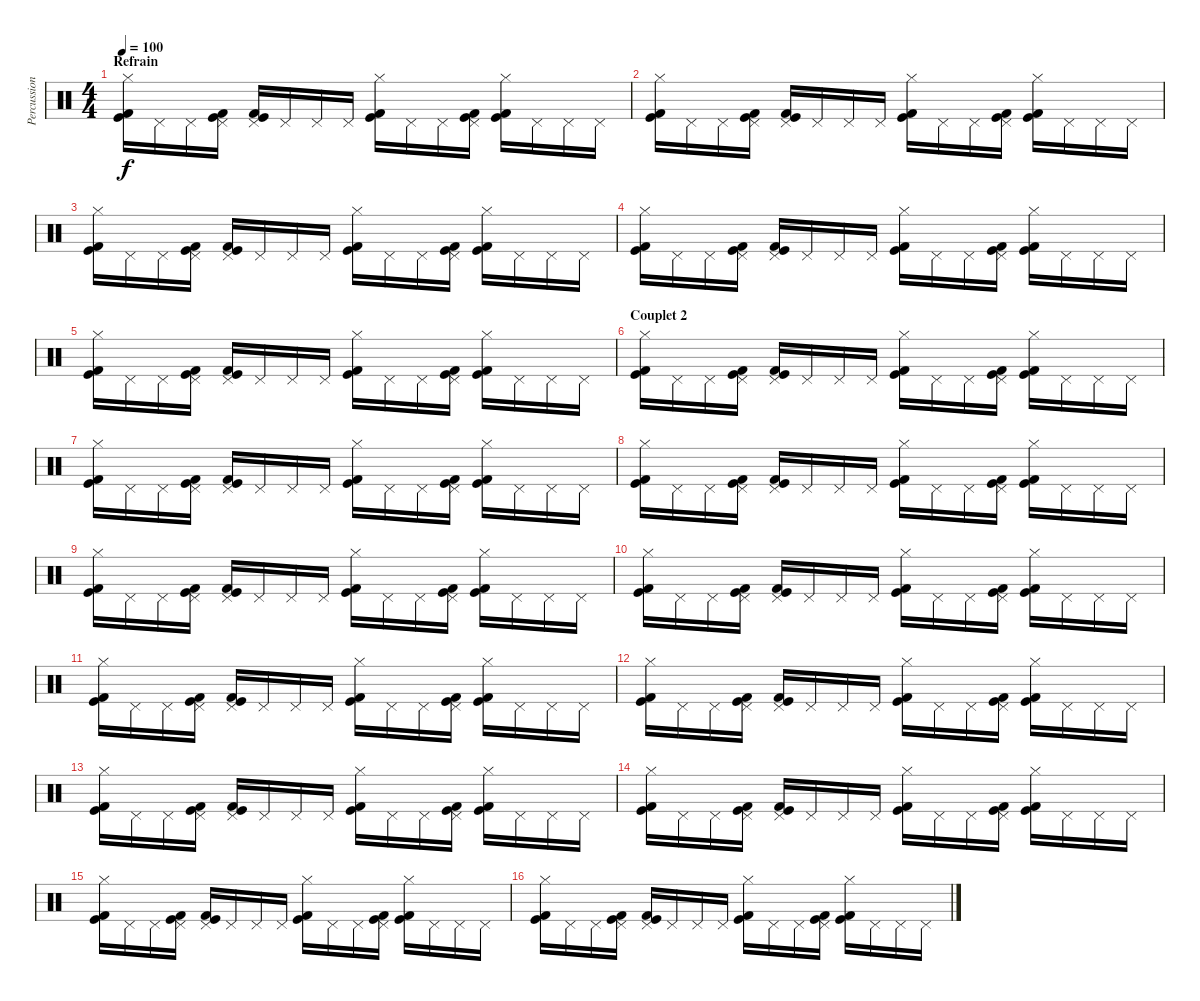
\track ("Percussions" "Percussion") {instrument percussion}
\staff {score}
\articulation defaults
\ts (4 4)
\section ("" "Refrain")
\tempo 100
\clef neutral
\ks c
("Kick (hit)" "Kick (hit) 2" "Hi-Hat (closed)").16{dy f} "Pedal Hi-Hat (hit)".16 "Pedal Hi-Hat (hit)".16 ("Kick (hit)" "Kick (hit) 2" "Pedal Hi-Hat (hit)").16 ("Kick (hit)" "Kick (hit) 2" "Pedal Hi-Hat (hit)").16 "Pedal Hi-Hat (hit)".16 "Pedal Hi-Hat (hit)".16 "Pedal Hi-Hat (hit)".16 ("Kick (hit)" "Kick (hit) 2" "Hi-Hat (closed)").16 "Pedal Hi-Hat (hit)".16 "Pedal Hi-Hat (hit)".16 ("Kick (hit)" "Kick (hit) 2" "Pedal Hi-Hat (hit)").16 ("Kick (hit)" "Kick (hit) 2" "Hi-Hat (closed)").16 "Pedal Hi-Hat (hit)".16 "Pedal Hi-Hat (hit)".16 "Pedal Hi-Hat (hit)".16 |
("Kick (hit)" "Kick (hit) 2" "Hi-Hat (closed)").16 "Pedal Hi-Hat (hit)".16 "Pedal Hi-Hat (hit)".16 ("Kick (hit)" "Kick (hit) 2" "Pedal Hi-Hat (hit)").16 ("Kick (hit)" "Kick (hit) 2" "Pedal Hi-Hat (hit)").16 "Pedal Hi-Hat (hit)".16 "Pedal Hi-Hat (hit)".16 "Pedal Hi-Hat (hit)".16 ("Kick (hit)" "Kick (hit) 2" "Hi-Hat (closed)").16 "Pedal Hi-Hat (hit)".16 "Pedal Hi-Hat (hit)".16 ("Kick (hit)" "Kick (hit) 2" "Pedal Hi-Hat (hit)").16 ("Kick (hit)" "Kick (hit) 2" "Hi-Hat (closed)").16 "Pedal Hi-Hat (hit)".16 "Pedal Hi-Hat (hit)".16 "Pedal Hi-Hat (hit)".16 |
("Kick (hit)" "Kick (hit) 2" "Hi-Hat (closed)").16 "Pedal Hi-Hat (hit)".16 "Pedal Hi-Hat (hit)".16 ("Kick (hit)" "Kick (hit) 2" "Pedal Hi-Hat (hit)").16 ("Kick (hit)" "Kick (hit) 2" "Pedal Hi-Hat (hit)").16 "Pedal Hi-Hat (hit)".16 "Pedal Hi-Hat (hit)".16 "Pedal Hi-Hat (hit)".16 ("Kick (hit)" "Kick (hit) 2" "Hi-Hat (closed)").16 "Pedal Hi-Hat (hit)".16 "Pedal Hi-Hat (hit)".16 ("Kick (hit)" "Kick (hit) 2" "Pedal Hi-Hat (hit)").16 ("Kick (hit)" "Kick (hit) 2" "Hi-Hat (closed)").16 "Pedal Hi-Hat (hit)".16 "Pedal Hi-Hat (hit)".16 "Pedal Hi-Hat (hit)".16 |
("Kick (hit)" "Kick (hit) 2" "Hi-Hat (closed)").16 "Pedal Hi-Hat (hit)".16 "Pedal Hi-Hat (hit)".16 ("Kick (hit)" "Kick (hit) 2" "Pedal Hi-Hat (hit)").16 ("Kick (hit)" "Kick (hit) 2" "Pedal Hi-Hat (hit)").16 "Pedal Hi-Hat (hit)".16 "Pedal Hi-Hat (hit)".16 "Pedal Hi-Hat (hit)".16 ("Kick (hit)" "Kick (hit) 2" "Hi-Hat (closed)").16 "Pedal Hi-Hat (hit)".16 "Pedal Hi-Hat (hit)".16 ("Kick (hit)" "Kick (hit) 2" "Pedal Hi-Hat (hit)").16 ("Kick (hit)" "Kick (hit) 2" "Hi-Hat (closed)").16 "Pedal Hi-Hat (hit)".16 "Pedal Hi-Hat (hit)".16 "Pedal Hi-Hat (hit)".16 |
("Kick (hit)" "Kick (hit) 2" "Hi-Hat (closed)").16 "Pedal Hi-Hat (hit)".16 "Pedal Hi-Hat (hit)".16 ("Kick (hit)" "Kick (hit) 2" "Pedal Hi-Hat (hit)").16 ("Kick (hit)" "Kick (hit) 2" "Pedal Hi-Hat (hit)").16 "Pedal Hi-Hat (hit)".16 "Pedal Hi-Hat (hit)".16 "Pedal Hi-Hat (hit)".16 ("Kick (hit)" "Kick (hit) 2" "Hi-Hat (closed)").16 "Pedal Hi-Hat (hit)".16 "Pedal Hi-Hat (hit)".16 ("Kick (hit)" "Kick (hit) 2" "Pedal Hi-Hat (hit)").16 ("Kick (hit)" "Kick (hit) 2" "Hi-Hat (closed)").16 "Pedal Hi-Hat (hit)".16 "Pedal Hi-Hat (hit)".16 "Pedal Hi-Hat (hit)".16 |
\section ("" "Couplet 2")
("Kick (hit)" "Kick (hit) 2" "Hi-Hat (closed)").16 "Pedal Hi-Hat (hit)".16 "Pedal Hi-Hat (hit)".16 ("Kick (hit)" "Kick (hit) 2" "Pedal Hi-Hat (hit)").16 ("Kick (hit)" "Kick (hit) 2" "Pedal Hi-Hat (hit)").16 "Pedal Hi-Hat (hit)".16 "Pedal Hi-Hat (hit)".16 "Pedal Hi-Hat (hit)".16 ("Kick (hit)" "Kick (hit) 2" "Hi-Hat (closed)").16 "Pedal Hi-Hat (hit)".16 "Pedal Hi-Hat (hit)".16 ("Kick (hit)" "Kick (hit) 2" "Pedal Hi-Hat (hit)").16 ("Kick (hit)" "Kick (hit) 2" "Hi-Hat (closed)").16 "Pedal Hi-Hat (hit)".16 "Pedal Hi-Hat (hit)".16 "Pedal Hi-Hat (hit)".16 |
("Kick (hit)" "Kick (hit) 2" "Hi-Hat (closed)").16 "Pedal Hi-Hat (hit)".16 "Pedal Hi-Hat (hit)".16 ("Kick (hit)" "Kick (hit) 2" "Pedal Hi-Hat (hit)").16 ("Kick (hit)" "Kick (hit) 2" "Pedal Hi-Hat (hit)").16 "Pedal Hi-Hat (hit)".16 "Pedal Hi-Hat (hit)".16 "Pedal Hi-Hat (hit)".16 ("Kick (hit)" "Kick (hit) 2" "Hi-Hat (closed)").16 "Pedal Hi-Hat (hit)".16 "Pedal Hi-Hat (hit)".16 ("Kick (hit)" "Kick (hit) 2" "Pedal Hi-Hat (hit)").16 ("Kick (hit)" "Kick (hit) 2" "Hi-Hat (closed)").16 "Pedal Hi-Hat (hit)".16 "Pedal Hi-Hat (hit)".16 "Pedal Hi-Hat (hit)".16 |
("Kick (hit)" "Kick (hit) 2" "Hi-Hat (closed)").16 "Pedal Hi-Hat (hit)".16 "Pedal Hi-Hat (hit)".16 ("Kick (hit)" "Kick (hit) 2" "Pedal Hi-Hat (hit)").16 ("Kick (hit)" "Kick (hit) 2" "Pedal Hi-Hat (hit)").16 "Pedal Hi-Hat (hit)".16 "Pedal Hi-Hat (hit)".16 "Pedal Hi-Hat (hit)".16 ("Kick (hit)" "Kick (hit) 2" "Hi-Hat (closed)").16 "Pedal Hi-Hat (hit)".16 "Pedal Hi-Hat (hit)".16 ("Kick (hit)" "Kick (hit) 2" "Pedal Hi-Hat (hit)").16 ("Kick (hit)" "Kick (hit) 2" "Hi-Hat (closed)").16 "Pedal Hi-Hat (hit)".16 "Pedal Hi-Hat (hit)".16 "Pedal Hi-Hat (hit)".16 |
("Kick (hit)" "Kick (hit) 2" "Hi-Hat (closed)").16 "Pedal Hi-Hat (hit)".16 "Pedal Hi-Hat (hit)".16 ("Kick (hit)" "Kick (hit) 2" "Pedal Hi-Hat (hit)").16 ("Kick (hit)" "Kick (hit) 2" "Pedal Hi-Hat (hit)").16 "Pedal Hi-Hat (hit)".16 "Pedal Hi-Hat (hit)".16 "Pedal Hi-Hat (hit)".16 ("Kick (hit)" "Kick (hit) 2" "Hi-Hat (closed)").16 "Pedal Hi-Hat (hit)".16 "Pedal Hi-Hat (hit)".16 ("Kick (hit)" "Kick (hit) 2" "Pedal Hi-Hat (hit)").16 ("Kick (hit)" "Kick (hit) 2" "Hi-Hat (closed)").16 "Pedal Hi-Hat (hit)".16 "Pedal Hi-Hat (hit)".16 "Pedal Hi-Hat (hit)".16 |
("Kick (hit)" "Kick (hit) 2" "Hi-Hat (closed)").16 "Pedal Hi-Hat (hit)".16 "Pedal Hi-Hat (hit)".16 ("Kick (hit)" "Kick (hit) 2" "Pedal Hi-Hat (hit)").16 ("Kick (hit)" "Kick (hit) 2" "Pedal Hi-Hat (hit)").16 "Pedal Hi-Hat (hit)".16 "Pedal Hi-Hat (hit)".16 "Pedal Hi-Hat (hit)".16 ("Kick (hit)" "Kick (hit) 2" "Hi-Hat (closed)").16 "Pedal Hi-Hat (hit)".16 "Pedal Hi-Hat (hit)".16 ("Kick (hit)" "Kick (hit) 2" "Pedal Hi-Hat (hit)").16 ("Kick (hit)" "Kick (hit) 2" "Hi-Hat (closed)").16 "Pedal Hi-Hat (hit)".16 "Pedal Hi-Hat (hit)".16 "Pedal Hi-Hat (hit)".16 |
("Kick (hit)" "Kick (hit) 2" "Hi-Hat (closed)").16 "Pedal Hi-Hat (hit)".16 "Pedal Hi-Hat (hit)".16 ("Kick (hit)" "Kick (hit) 2" "Pedal Hi-Hat (hit)").16 ("Kick (hit)" "Kick (hit) 2" "Pedal Hi-Hat (hit)").16 "Pedal Hi-Hat (hit)".16 "Pedal Hi-Hat (hit)".16 "Pedal Hi-Hat (hit)".16 ("Kick (hit)" "Kick (hit) 2" "Hi-Hat (closed)").16 "Pedal Hi-Hat (hit)".16 "Pedal Hi-Hat (hit)".16 ("Kick (hit)" "Kick (hit) 2" "Pedal Hi-Hat (hit)").16 ("Kick (hit)" "Kick (hit) 2" "Hi-Hat (closed)").16 "Pedal Hi-Hat (hit)".16 "Pedal Hi-Hat (hit)".16 "Pedal Hi-Hat (hit)".16 |
("Kick (hit)" "Kick (hit) 2" "Hi-Hat (closed)").16 "Pedal Hi-Hat (hit)".16 "Pedal Hi-Hat (hit)".16 ("Kick (hit)" "Kick (hit) 2" "Pedal Hi-Hat (hit)").16 ("Kick (hit)" "Kick (hit) 2" "Pedal Hi-Hat (hit)").16 "Pedal Hi-Hat (hit)".16 "Pedal Hi-Hat (hit)".16 "Pedal Hi-Hat (hit)".16 ("Kick (hit)" "Kick (hit) 2" "Hi-Hat (closed)").16 "Pedal Hi-Hat (hit)".16 "Pedal Hi-Hat (hit)".16 ("Kick (hit)" "Kick (hit) 2" "Pedal Hi-Hat (hit)").16 ("Kick (hit)" "Kick (hit) 2" "Hi-Hat (closed)").16 "Pedal Hi-Hat (hit)".16 "Pedal Hi-Hat (hit)".16 "Pedal Hi-Hat (hit)".16 |
("Kick (hit)" "Kick (hit) 2" "Hi-Hat (closed)").16 "Pedal Hi-Hat (hit)".16 "Pedal Hi-Hat (hit)".16 ("Kick (hit)" "Kick (hit) 2" "Pedal Hi-Hat (hit)").16 ("Kick (hit)" "Kick (hit) 2" "Pedal Hi-Hat (hit)").16 "Pedal Hi-Hat (hit)".16 "Pedal Hi-Hat (hit)".16 "Pedal Hi-Hat (hit)".16 ("Kick (hit)" "Kick (hit) 2" "Hi-Hat (closed)").16 "Pedal Hi-Hat (hit)".16 "Pedal Hi-Hat (hit)".16 ("Kick (hit)" "Kick (hit) 2" "Pedal Hi-Hat (hit)").16 ("Kick (hit)" "Kick (hit) 2" "Hi-Hat (closed)").16 "Pedal Hi-Hat (hit)".16 "Pedal Hi-Hat (hit)".16 "Pedal Hi-Hat (hit)".16 |
("Kick (hit)" "Kick (hit) 2" "Hi-Hat (closed)").16 "Pedal Hi-Hat (hit)".16 "Pedal Hi-Hat (hit)".16 ("Kick (hit)" "Kick (hit) 2" "Pedal Hi-Hat (hit)").16 ("Kick (hit)" "Kick (hit) 2" "Pedal Hi-Hat (hit)").16 "Pedal Hi-Hat (hit)".16 "Pedal Hi-Hat (hit)".16 "Pedal Hi-Hat (hit)".16 ("Kick (hit)" "Kick (hit) 2" "Hi-Hat (closed)").16 "Pedal Hi-Hat (hit)".16 "Pedal Hi-Hat (hit)".16 ("Kick (hit)" "Kick (hit) 2" "Pedal Hi-Hat (hit)").16 ("Kick (hit)" "Kick (hit) 2" "Hi-Hat (closed)").16 "Pedal Hi-Hat (hit)".16 "Pedal Hi-Hat (hit)".16 "Pedal Hi-Hat (hit)".16 |
("Kick (hit)" "Kick (hit) 2" "Hi-Hat (closed)").16 "Pedal Hi-Hat (hit)".16 "Pedal Hi-Hat (hit)".16 ("Kick (hit)" "Kick (hit) 2" "Pedal Hi-Hat (hit)").16 ("Kick (hit)" "Kick (hit) 2" "Pedal Hi-Hat (hit)").16 "Pedal Hi-Hat (hit)".16 "Pedal Hi-Hat (hit)".16 "Pedal Hi-Hat (hit)".16 ("Kick (hit)" "Kick (hit) 2" "Hi-Hat (closed)").16 "Pedal Hi-Hat (hit)".16 "Pedal Hi-Hat (hit)".16 ("Kick (hit)" "Kick (hit) 2" "Pedal Hi-Hat (hit)").16 ("Kick (hit)" "Kick (hit) 2" "Hi-Hat (closed)").16 "Pedal Hi-Hat (hit)".16 "Pedal Hi-Hat (hit)".16 "Pedal Hi-Hat (hit)".16 |
("Kick (hit)" "Kick (hit) 2" "Hi-Hat (closed)").16 "Pedal Hi-Hat (hit)".16 "Pedal Hi-Hat (hit)".16 ("Kick (hit)" "Kick (hit) 2" "Pedal Hi-Hat (hit)").16 ("Kick (hit)" "Kick (hit) 2" "Pedal Hi-Hat (hit)").16 "Pedal Hi-Hat (hit)".16 "Pedal Hi-Hat (hit)".16 "Pedal Hi-Hat (hit)".16 ("Kick (hit)" "Kick (hit) 2" "Hi-Hat (closed)").16 "Pedal Hi-Hat (hit)".16 "Pedal Hi-Hat (hit)".16 ("Kick (hit)" "Kick (hit) 2" "Pedal Hi-Hat (hit)").16 ("Kick (hit)" "Kick (hit) 2" "Hi-Hat (closed)").16 "Pedal Hi-Hat (hit)".16 "Pedal Hi-Hat (hit)".16 "Pedal Hi-Hat (hit)".16
